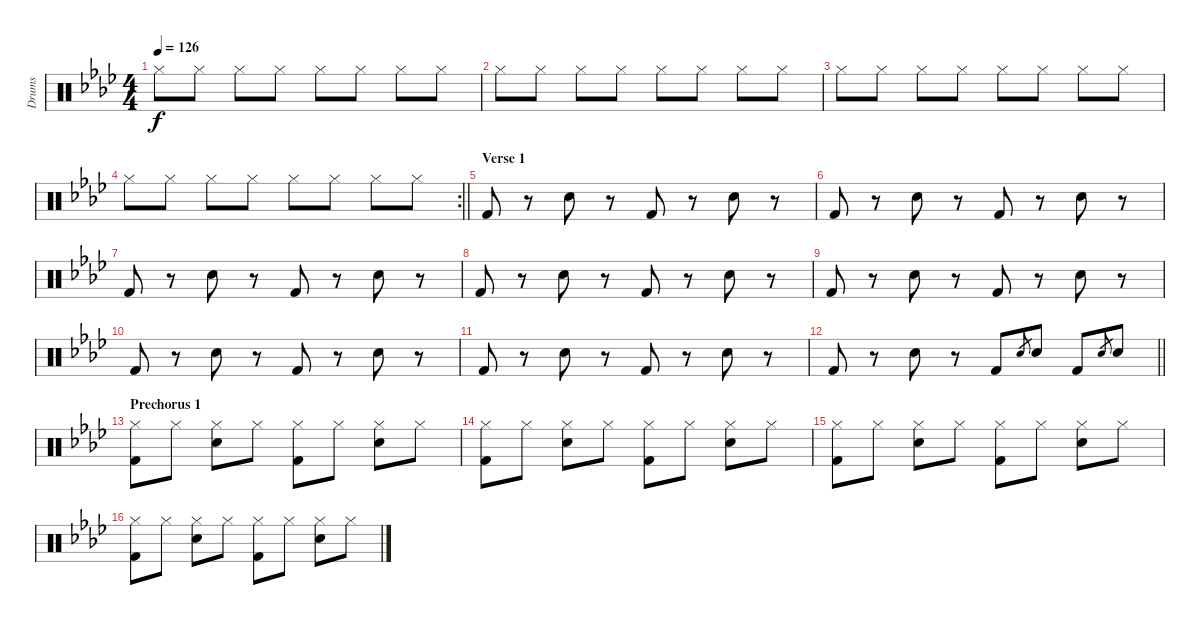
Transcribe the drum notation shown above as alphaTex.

\track ("Drums" "Drums") {instrument percussion}
\staff {score}
\articulation defaults
\ts (4 4)
\tempo 126
\clef neutral
\ks ab "Hi-Hat (closed)".8{dy f} "Hi-Hat (closed)".8 "Hi-Hat (closed)".8 "Hi-Hat (closed)".8 "Hi-Hat (closed)".8 "Hi-Hat (closed)".8 "Hi-Hat (closed)".8 "Hi-Hat (closed)".8
|
"Hi-Hat (closed)".8 "Hi-Hat (closed)".8 "Hi-Hat (closed)".8 "Hi-Hat (closed)".8 "Hi-Hat (closed)".8 "Hi-Hat (closed)".8 "Hi-Hat (closed)".8 "Hi-Hat (closed)".8 |
"Hi-Hat (closed)".8 "Hi-Hat (closed)".8 "Hi-Hat (closed)".8 "Hi-Hat (closed)".8 "Hi-Hat (closed)".8 "Hi-Hat (closed)".8 "Hi-Hat (closed)".8 "Hi-Hat (closed)".8 |
\rc 2
\barLineRight lightlight "Hi-Hat (closed)".8 "Hi-Hat (closed)".8 "Hi-Hat (closed)".8 "Hi-Hat (closed)".8 "Hi-Hat (closed)".8 "Hi-Hat (closed)".8 "Hi-Hat (closed)".8 "Hi-Hat (closed)".8
|
\section ("" "Verse 1")
"Kick (hit) 2".8 r.8 "Electric Snare (hit)".8 r.8 "Kick (hit) 2".8 r.8 "Electric Snare (hit)".8 r.8 |
"Kick (hit) 2".8 r.8 "Electric Snare (hit)".8 r.8 "Kick (hit) 2".8 r.8 "Electric Snare (hit)".8 r.8 |
"Kick (hit) 2".8 r.8 "Electric Snare (hit)".8 r.8 "Kick (hit) 2".8 r.8 "Electric Snare (hit)".8 r.8 |
"Kick (hit) 2".8 r.8 "Electric Snare (hit)".8 r.8 "Kick (hit) 2".8 r.8 "Electric Snare (hit)".8 r.8 |
"Kick (hit) 2".8 r.8 "Electric Snare (hit)".8 r.8 "Kick (hit) 2".8 r.8 "Electric Snare (hit)".8 r.8 |
"Kick (hit) 2".8 r.8 "Electric Snare (hit)".8 r.8 "Kick (hit) 2".8 r.8 "Electric Snare (hit)".8 r.8 |
"Kick (hit) 2".8 r.8 "Electric Snare (hit)".8 r.8 "Kick (hit) 2".8 r.8 "Electric Snare (hit)".8 r.8 |
\barLineRight lightlight "Kick (hit) 2".8
r.8 "Electric Snare (hit)".8 r.8 "Kick (hit) 2".8 "Electric Snare (hit)".8{gr} "Electric Snare (hit)".8 "Kick (hit) 2".8 "Electric Snare (hit)".8{gr} "Electric Snare (hit)".8 |
\section ("" "Prechorus 1")
("Hi-Hat (closed)" "Kick (hit) 2").8 "Hi-Hat (closed)".8 ("Hi-Hat (closed)" "Electric Snare (hit)").8 "Hi-Hat (closed)".8 ("Hi-Hat (closed)" "Kick (hit) 2").8 "Hi-Hat (closed)".8 ("Hi-Hat (closed)" "Electric Snare (hit)").8 "Hi-Hat (closed)".8 |
("Hi-Hat (closed)" "Kick (hit) 2").8 "Hi-Hat (closed)".8 ("Hi-Hat (closed)" "Electric Snare (hit)").8 "Hi-Hat (closed)".8 ("Hi-Hat (closed)" "Kick (hit) 2").8 "Hi-Hat (closed)".8 ("Hi-Hat (closed)" "Electric Snare (hit)").8 "Hi-Hat (closed)".8 |
("Hi-Hat (closed)" "Kick (hit) 2").8 "Hi-Hat (closed)".8 ("Hi-Hat (closed)" "Electric Snare (hit)").8 "Hi-Hat (closed)".8 ("Hi-Hat (closed)" "Kick (hit) 2").8 "Hi-Hat (closed)".8 ("Hi-Hat (closed)" "Electric Snare (hit)").8 "Hi-Hat (closed)".8 |
("Hi-Hat (closed)" "Kick (hit) 2").8 "Hi-Hat (closed)".8 ("Hi-Hat (closed)" "Electric Snare (hit)").8 "Hi-Hat (closed)".8 ("Hi-Hat (closed)" "Kick (hit) 2").8 "Hi-Hat (closed)".8 ("Hi-Hat (closed)" "Electric Snare (hit)").8 "Hi-Hat (closed)".8
